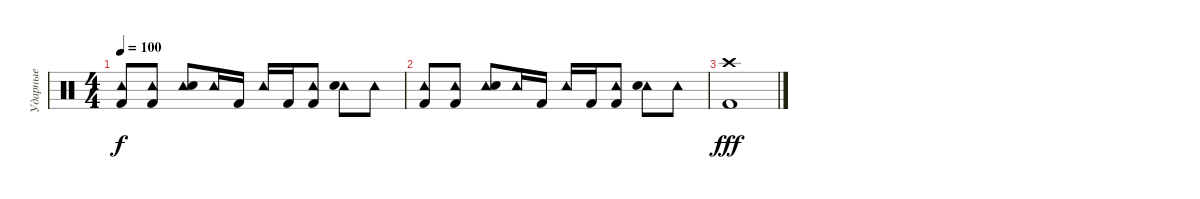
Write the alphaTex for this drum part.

\track ("Ударные" "Ударные") {instrument percussion}
\staff {score}
\articulation defaults
\ts (4 4)
\tempo 100
\clef neutral
\ks c
("Tambourine (hit)" "Kick (hit) 2").8{dy f} ("Tambourine (hit)" "Kick (hit) 2").8 ("Tambourine (hit)" "Electric Snare (hit)").8 "Tambourine (hit)".16 "Kick (hit) 2".16 "Tambourine (hit)".16 "Kick (hit) 2".16 ("Tambourine (hit)" "Kick (hit) 2").8 ("Tambourine (hit)" "Electric Snare (hit)").8 "Tambourine (hit)".8 |
("Tambourine (hit)" "Kick (hit) 2").8 ("Tambourine (hit)" "Kick (hit) 2").8 ("Tambourine (hit)" "Electric Snare (hit)").8 "Tambourine (hit)".16 "Kick (hit) 2".16 "Tambourine (hit)".16 "Kick (hit) 2".16 ("Tambourine (hit)" "Kick (hit) 2").8 ("Tambourine (hit)" "Electric Snare (hit)").8 "Tambourine (hit)".8 |
("Crash high (hit)" "Kick (hit) 2").1{dy fff}
